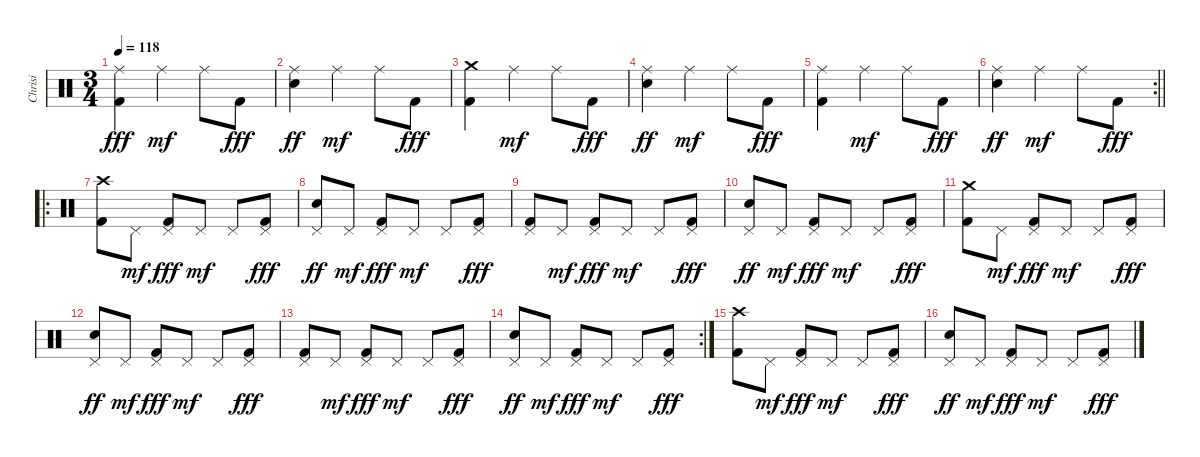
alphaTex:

\track ("Chrisi" "Chrisi") {instrument percussion}
\staff {score}
\articulation defaults
\ts (3 4)
\tempo 118
\clef neutral
\ks c
("Ride (middle)" "Kick (hit) 2").4{dy fff} "Ride (middle)".4{dy mf} "Ride (middle)".8 "Kick (hit) 2".8{dy fff} |
("Ride (middle)" "Electric Snare (hit)").4{dy ff} "Ride (middle)".4{dy mf} "Ride (middle)".8 "Kick (hit) 2".8{dy fff} |
("Crash medium (hit)" "Kick (hit) 2").4 "Ride (middle)".4{dy mf} "Ride (middle)".8 "Kick (hit) 2".8{dy fff} |
("Ride (middle)" "Electric Snare (hit)").4{dy ff} "Ride (middle)".4{dy mf} "Ride (middle)".8 "Kick (hit) 2".8{dy fff} |
("Ride (middle)" "Kick (hit) 2").4 "Ride (middle)".4{dy mf} "Ride (middle)".8 "Kick (hit) 2".8{dy fff} |
\rc 2
\barLineRight lightlight
("Ride (middle)" "Electric Snare (hit)").4{dy ff} "Ride (middle)".4{dy mf} "Ride (middle)".8 "Kick (hit) 2".8{dy fff} |
\ro
("Crash high (hit)" "Kick (hit) 2").8 "Pedal Hi-Hat (hit)".8{dy mf} ("Pedal Hi-Hat (hit)" "Kick (hit) 2").8{dy fff} "Pedal Hi-Hat (hit)".8{dy mf} "Pedal Hi-Hat (hit)".8 ("Pedal Hi-Hat (hit)" "Kick (hit) 2").8{dy fff} |
("Pedal Hi-Hat (hit)" "Electric Snare (hit)").8{dy ff} "Pedal Hi-Hat (hit)".8{dy mf} ("Pedal Hi-Hat (hit)" "Kick (hit) 2").8{dy fff} "Pedal Hi-Hat (hit)".8{dy mf} "Pedal Hi-Hat (hit)".8 ("Pedal Hi-Hat (hit)" "Kick (hit) 2").8{dy fff} |
("Pedal Hi-Hat (hit)" "Kick (hit) 2").8 "Pedal Hi-Hat (hit)".8{dy mf} ("Pedal Hi-Hat (hit)" "Kick (hit) 2").8{dy fff} "Pedal Hi-Hat (hit)".8{dy mf} "Pedal Hi-Hat (hit)".8 ("Pedal Hi-Hat (hit)" "Kick (hit) 2").8{dy fff} |
("Pedal Hi-Hat (hit)" "Electric Snare (hit)").8{dy ff} "Pedal Hi-Hat (hit)".8{dy mf} ("Pedal Hi-Hat (hit)" "Kick (hit) 2").8{dy fff} "Pedal Hi-Hat (hit)".8{dy mf} "Pedal Hi-Hat (hit)".8 ("Pedal Hi-Hat (hit)" "Kick (hit) 2").8{dy fff} |
("Crash medium (hit)" "Kick (hit) 2").8 "Pedal Hi-Hat (hit)".8{dy mf} ("Pedal Hi-Hat (hit)" "Kick (hit) 2").8{dy fff} "Pedal Hi-Hat (hit)".8{dy mf} "Pedal Hi-Hat (hit)".8 ("Pedal Hi-Hat (hit)" "Kick (hit) 2").8{dy fff} |
("Pedal Hi-Hat (hit)" "Electric Snare (hit)").8{dy ff} "Pedal Hi-Hat (hit)".8{dy mf} ("Pedal Hi-Hat (hit)" "Kick (hit) 2").8{dy fff} "Pedal Hi-Hat (hit)".8{dy mf} "Pedal Hi-Hat (hit)".8 ("Pedal Hi-Hat (hit)" "Kick (hit) 2").8{dy fff} |
("Pedal Hi-Hat (hit)" "Kick (hit) 2").8 "Pedal Hi-Hat (hit)".8{dy mf} ("Pedal Hi-Hat (hit)" "Kick (hit) 2").8{dy fff} "Pedal Hi-Hat (hit)".8{dy mf} "Pedal Hi-Hat (hit)".8 ("Pedal Hi-Hat (hit)" "Kick (hit) 2").8{dy fff} |
\rc 2
("Pedal Hi-Hat (hit)" "Electric Snare (hit)").8{dy ff} "Pedal Hi-Hat (hit)".8{dy mf} ("Pedal Hi-Hat (hit)" "Kick (hit) 2").8{dy fff} "Pedal Hi-Hat (hit)".8{dy mf} "Pedal Hi-Hat (hit)".8 ("Pedal Hi-Hat (hit)" "Kick (hit) 2").8{dy fff} |
("Crash high (hit)" "Kick (hit) 2").8 "Pedal Hi-Hat (hit)".8{dy mf} ("Pedal Hi-Hat (hit)" "Kick (hit) 2").8{dy fff} "Pedal Hi-Hat (hit)".8{dy mf} "Pedal Hi-Hat (hit)".8 ("Pedal Hi-Hat (hit)" "Kick (hit) 2").8{dy fff} |
("Pedal Hi-Hat (hit)" "Electric Snare (hit)").8{dy ff} "Pedal Hi-Hat (hit)".8{dy mf} ("Pedal Hi-Hat (hit)" "Kick (hit) 2").8{dy fff} "Pedal Hi-Hat (hit)".8{dy mf} "Pedal Hi-Hat (hit)".8 ("Pedal Hi-Hat (hit)" "Kick (hit) 2").8{dy fff}
